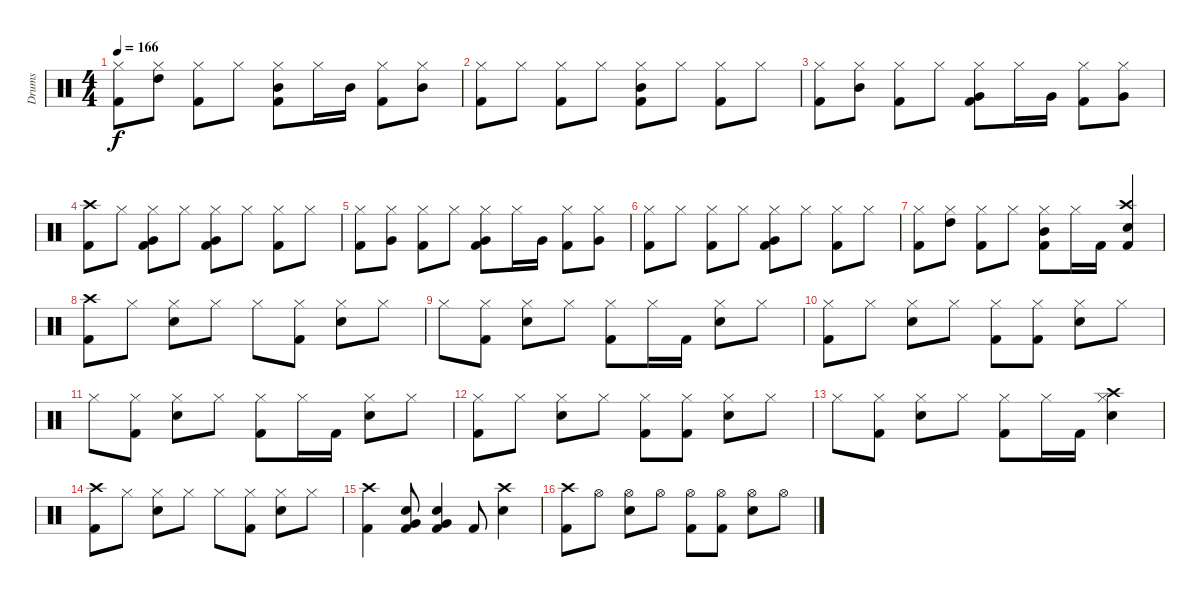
\track ("Drums" "Drums") {instrument percussion}
\staff {score}
\articulation defaults
\ts (4 4)
\tempo 166
\clef neutral
\ks c
("Hi-Hat (closed)" "Kick (hit) 2").8{dy f} ("High Tom (hit)" "Hi-Hat (closed)").8 ("Hi-Hat (closed)" "Kick (hit) 2").8 "Hi-Hat (closed)".8 ("Mid Tom (hit)" "Hi-Hat (closed)" "Kick (hit) 2").8 "Hi-Hat (closed)".16 "Mid Tom (hit)".16 ("Hi-Hat (closed)" "Kick (hit) 2").8 ("Mid Tom (hit)" "Hi-Hat (closed)").8 |
("Hi-Hat (closed)" "Kick (hit) 2").8 "Hi-Hat (closed)".8 ("Hi-Hat (closed)" "Kick (hit) 2").8 "Hi-Hat (closed)".8 ("Mid Tom (hit)" "Hi-Hat (closed)" "Kick (hit) 2").8 "Hi-Hat (closed)".8 ("Hi-Hat (closed)" "Kick (hit) 2").8 "Hi-Hat (closed)".8 |
("Hi-Hat (closed)" "Kick (hit) 2").8 ("Mid Tom (hit)" "Hi-Hat (closed)").8 ("Hi-Hat (closed)" "Kick (hit) 2").8 "Hi-Hat (closed)".8 ("Very Low Tom (hit)" "Hi-Hat (closed)" "Kick (hit) 2").8 "Hi-Hat (closed)".16 "Very Low Tom (hit)".16 ("Hi-Hat (closed)" "Kick (hit) 2").8 ("Very Low Tom (hit)" "Hi-Hat (closed)").8 |
("Crash high (hit)" "Kick (hit) 2").8 "Hi-Hat (closed)".8 ("Very Low Tom (hit)" "Hi-Hat (closed)" "Kick (hit) 2").8 "Hi-Hat (closed)".8 ("Very Low Tom (hit)" "Hi-Hat (closed)" "Kick (hit) 2").8 "Hi-Hat (closed)".8 ("Hi-Hat (closed)" "Kick (hit) 2").8 "Hi-Hat (closed)".8 |
("Hi-Hat (closed)" "Kick (hit) 2").8 ("Very Low Tom (hit)" "Hi-Hat (closed)").8 ("Hi-Hat (closed)" "Kick (hit) 2").8 "Hi-Hat (closed)".8 ("Very Low Tom (hit)" "Hi-Hat (closed)" "Kick (hit) 2").8 "Hi-Hat (closed)".16 "Very Low Tom (hit)".16 ("Hi-Hat (closed)" "Kick (hit) 2").8 ("Very Low Tom (hit)" "Hi-Hat (closed)").8 |
("Hi-Hat (closed)" "Kick (hit) 2").8 "Hi-Hat (closed)".8 ("Hi-Hat (closed)" "Kick (hit) 2").8 "Hi-Hat (closed)".8 ("Very Low Tom (hit)" "Hi-Hat (closed)" "Kick (hit) 2").8 "Hi-Hat (closed)".8 ("Hi-Hat (closed)" "Kick (hit) 2").8 "Hi-Hat (closed)".8 |
("Hi-Hat (closed)" "Kick (hit) 2").8 ("High Tom (hit)" "Hi-Hat (closed)").8 ("Hi-Hat (closed)" "Kick (hit) 2").8 "Hi-Hat (closed)".8 ("Mid Tom (hit)" "Hi-Hat (closed)" "Kick (hit) 2").8 "Hi-Hat (closed)".16 "Kick (hit) 2".16 ("Crash high (hit)" "Snare (hit) 2" "Kick (hit) 2").4 |
("Crash high (hit)" "Kick (hit) 2").8 "Hi-Hat (closed)".8 ("Hi-Hat (closed)" "Snare (hit) 2").8 "Hi-Hat (closed)".8 "Hi-Hat (closed)".8 ("Hi-Hat (closed)" "Kick (hit) 2").8 ("Hi-Hat (closed)" "Snare (hit) 2").8 "Hi-Hat (closed)".8 |
"Hi-Hat (closed)".8 ("Hi-Hat (closed)" "Kick (hit) 2").8 ("Hi-Hat (closed)" "Snare (hit) 2").8 "Hi-Hat (closed)".8 ("Hi-Hat (closed)" "Kick (hit) 2").8 "Hi-Hat (closed)".16 "Kick (hit) 2".16 ("Hi-Hat (closed)" "Snare (hit) 2").8 "Hi-Hat (closed)".8 |
("Hi-Hat (closed)" "Kick (hit) 2").8 "Hi-Hat (closed)".8 ("Hi-Hat (closed)" "Snare (hit) 2").8 "Hi-Hat (closed)".8 ("Hi-Hat (closed)" "Kick (hit) 2").8 ("Hi-Hat (closed)" "Kick (hit) 2").8 ("Hi-Hat (closed)" "Snare (hit) 2").8 "Hi-Hat (closed)".8 |
"Hi-Hat (closed)".8 ("Hi-Hat (closed)" "Kick (hit) 2").8 ("Hi-Hat (closed)" "Snare (hit) 2").8 "Hi-Hat (closed)".8 ("Hi-Hat (closed)" "Kick (hit) 2").8 "Hi-Hat (closed)".16 "Kick (hit) 2".16 ("Hi-Hat (closed)" "Snare (hit) 2").8 "Hi-Hat (closed)".8 |
("Hi-Hat (closed)" "Kick (hit) 2").8 "Hi-Hat (closed)".8 ("Hi-Hat (closed)" "Snare (hit) 2").8 "Hi-Hat (closed)".8 ("Hi-Hat (closed)" "Kick (hit) 2").8 ("Hi-Hat (closed)" "Kick (hit) 2").8 ("Hi-Hat (closed)" "Snare (hit) 2").8 "Hi-Hat (closed)".8 |
"Hi-Hat (closed)".8 ("Hi-Hat (closed)" "Kick (hit) 2").8 ("Hi-Hat (closed)" "Snare (hit) 2").8 "Hi-Hat (closed)".8 ("Hi-Hat (closed)" "Kick (hit) 2").8 "Hi-Hat (closed)".16 "Kick (hit) 2".16 ("Crash high (hit)" "Hi-Hat (closed)" "Snare (hit) 2").4 |
("Crash high (hit)" "Kick (hit) 2").8 "Hi-Hat (closed)".8 ("Hi-Hat (closed)" "Snare (hit) 2").8 "Hi-Hat (closed)".8 "Hi-Hat (closed)".8 ("Hi-Hat (closed)" "Kick (hit) 2").8 ("Hi-Hat (closed)" "Snare (hit) 2").8 "Hi-Hat (closed)".8 |
("Crash high (hit)" "Kick (hit) 2").4 ("Very Low Tom (hit)" "Snare (hit) 2" "Kick (hit) 2").8 ("Very Low Tom (hit)" "Snare (hit) 2" "Kick (hit) 2").4 "Kick (hit) 2".8 ("Crash high (hit)" "Snare (hit) 2").4 |
("Crash high (hit)" "Kick (hit) 2").8 "Hi-Hat (open)".8 ("Hi-Hat (open)" "Snare (hit) 2").8 "Hi-Hat (open)".8 ("Hi-Hat (open)" "Kick (hit) 2").8 ("Hi-Hat (open)" "Kick (hit) 2").8 ("Hi-Hat (open)" "Snare (hit) 2").8 "Hi-Hat (open)".8
